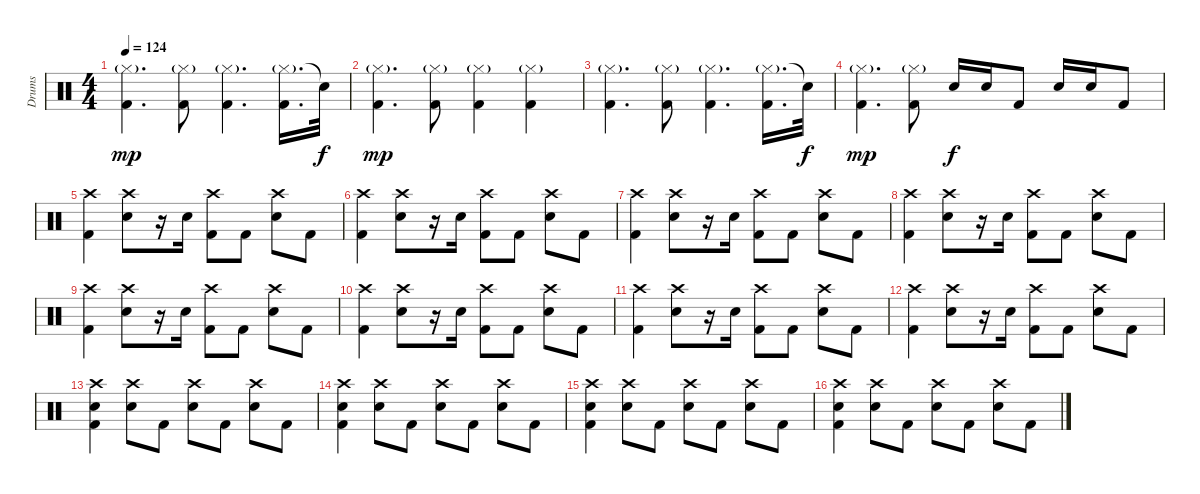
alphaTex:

\track ("Drums" "Drums") {instrument percussion}
\staff {score}
\articulation defaults
\ts (4 4)
\tempo 124
\clef neutral
\ks c
("Hi-Hat (closed)"{g} "Kick (hit) 2").4{d dy mp} ("Hi-Hat (closed)"{g} "Kick (hit) 2").8 ("Hi-Hat (closed)"{g} "Kick (hit) 2").4{d} ("Hi-Hat (closed)"{g} "Kick (hit) 2").16{d} "Snare (hit)"{t}.32{dy f} |
("Hi-Hat (closed)"{g} "Kick (hit) 2").4{d dy mp} ("Hi-Hat (closed)"{g} "Kick (hit) 2").8 ("Hi-Hat (closed)"{g} "Kick (hit) 2").4 ("Hi-Hat (closed)"{g} "Kick (hit) 2").4 |
("Hi-Hat (closed)"{g} "Kick (hit) 2").4{d} ("Hi-Hat (closed)"{g} "Kick (hit) 2").8 ("Hi-Hat (closed)"{g} "Kick (hit) 2").4{d} ("Hi-Hat (closed)"{g} "Kick (hit) 2").16{d} "Snare (hit)"{t}.32{dy f} |
("Hi-Hat (closed)"{g} "Kick (hit) 2").4{d dy mp} ("Hi-Hat (closed)"{g} "Kick (hit) 2").8 "Electric Snare (hit)".16{dy f} "Electric Snare (hit)".16 "Kick (hit) 2".8 "Electric Snare (hit)".16 "Electric Snare (hit)".16 "Kick (hit) 2".8 |
("Crash high (hit)" "Kick (hit) 2").4 ("Crash high (hit)" "Electric Snare (hit)").8 r.16 "Electric Snare (hit)".16 ("Crash high (hit)" "Kick (hit) 2").8 "Kick (hit) 2".8 ("Crash high (hit)" "Electric Snare (hit)").8 "Kick (hit) 2".8 |
("Crash high (hit)" "Kick (hit) 2").4 ("Crash high (hit)" "Electric Snare (hit)").8 r.16 "Electric Snare (hit)".16 ("Crash high (hit)" "Kick (hit) 2").8 "Kick (hit) 2".8 ("Crash high (hit)" "Electric Snare (hit)").8 "Kick (hit) 2".8 |
("Crash high (hit)" "Kick (hit) 2").4 ("Crash high (hit)" "Electric Snare (hit)").8 r.16 "Electric Snare (hit)".16 ("Crash high (hit)" "Kick (hit) 2").8 "Kick (hit) 2".8 ("Crash high (hit)" "Electric Snare (hit)").8 "Kick (hit) 2".8 |
("Crash high (hit)" "Kick (hit) 2").4 ("Crash high (hit)" "Electric Snare (hit)").8 r.16 "Electric Snare (hit)".16 ("Crash high (hit)" "Kick (hit) 2").8 "Kick (hit) 2".8 ("Crash high (hit)" "Electric Snare (hit)").8 "Kick (hit) 2".8 |
("Crash high (hit)" "Kick (hit) 2").4 ("Crash high (hit)" "Electric Snare (hit)").8 r.16 "Electric Snare (hit)".16 ("Crash high (hit)" "Kick (hit) 2").8 "Kick (hit) 2".8 ("Crash high (hit)" "Electric Snare (hit)").8 "Kick (hit) 2".8 |
("Crash high (hit)" "Kick (hit) 2").4 ("Crash high (hit)" "Electric Snare (hit)").8 r.16 "Electric Snare (hit)".16 ("Crash high (hit)" "Kick (hit) 2").8 "Kick (hit) 2".8 ("Crash high (hit)" "Electric Snare (hit)").8 "Kick (hit) 2".8 |
("Crash high (hit)" "Kick (hit) 2").4 ("Crash high (hit)" "Electric Snare (hit)").8 r.16 "Electric Snare (hit)".16 ("Crash high (hit)" "Kick (hit) 2").8 "Kick (hit) 2".8 ("Crash high (hit)" "Electric Snare (hit)").8 "Kick (hit) 2".8 |
("Crash high (hit)" "Kick (hit) 2").4 ("Crash high (hit)" "Electric Snare (hit)").8 r.16 "Electric Snare (hit)".16 ("Crash high (hit)" "Kick (hit) 2").8 "Kick (hit) 2".8 ("Crash high (hit)" "Electric Snare (hit)").8 "Kick (hit) 2".8 |
("Crash high (hit)" "Electric Snare (hit)" "Kick (hit) 2").4 ("Crash high (hit)" "Electric Snare (hit)").8 "Kick (hit) 2".8 ("Crash high (hit)" "Electric Snare (hit)").8 "Kick (hit) 2".8 ("Crash high (hit)" "Electric Snare (hit)").8 "Kick (hit) 2".8 |
("Crash high (hit)" "Electric Snare (hit)" "Kick (hit) 2").4 ("Crash high (hit)" "Electric Snare (hit)").8 "Kick (hit) 2".8 ("Crash high (hit)" "Electric Snare (hit)").8 "Kick (hit) 2".8 ("Crash high (hit)" "Electric Snare (hit)").8 "Kick (hit) 2".8 |
("Crash high (hit)" "Electric Snare (hit)" "Kick (hit) 2").4 ("Crash high (hit)" "Electric Snare (hit)").8 "Kick (hit) 2".8 ("Crash high (hit)" "Electric Snare (hit)").8 "Kick (hit) 2".8 ("Crash high (hit)" "Electric Snare (hit)").8 "Kick (hit) 2".8 |
("Crash high (hit)" "Electric Snare (hit)" "Kick (hit) 2").4 ("Crash high (hit)" "Electric Snare (hit)").8 "Kick (hit) 2".8 ("Crash high (hit)" "Electric Snare (hit)").8 "Kick (hit) 2".8 ("Crash high (hit)" "Electric Snare (hit)").8 "Kick (hit) 2".8
